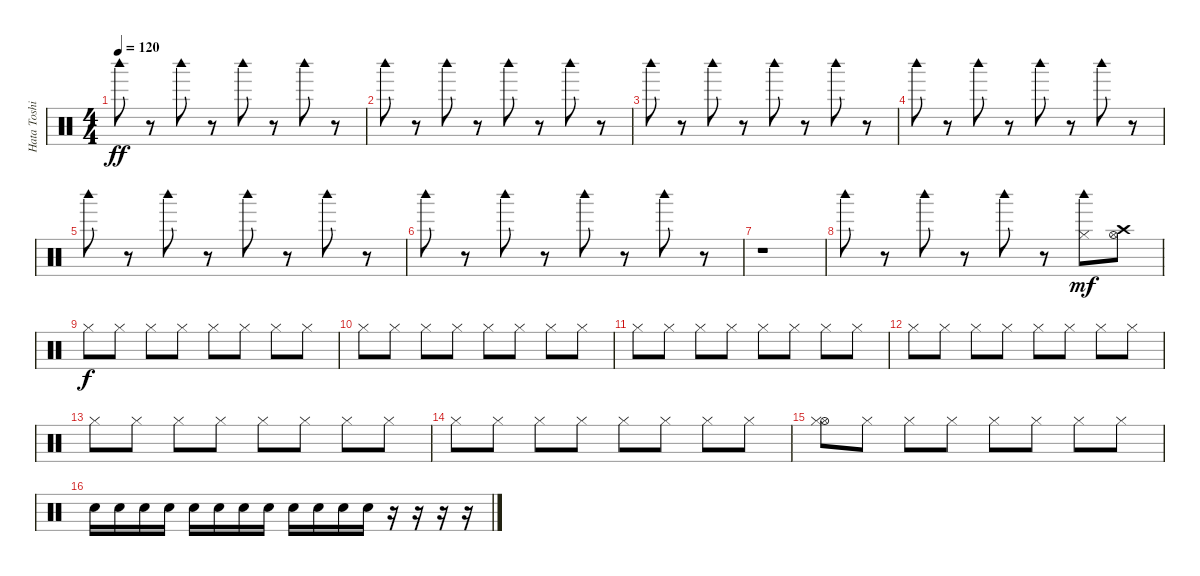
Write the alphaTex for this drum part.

\track ("Hata Toshiki" "Hata Toshi") {instrument percussion}
\staff {score}
\articulation defaults
\ts (4 4)
\tempo 120
\clef neutral
\ks c "Woodblock high (hit)".8{dy ff}
r.8 "Woodblock high (hit)".8 r.8 "Woodblock high (hit)".8 r.8 "Woodblock high (hit)".8 r.8 |
"Woodblock high (hit)".8 r.8 "Woodblock high (hit)".8 r.8 "Woodblock high (hit)".8 r.8 "Woodblock high (hit)".8 r.8 |
"Woodblock high (hit)".8 r.8 "Woodblock high (hit)".8 r.8 "Woodblock high (hit)".8 r.8 "Woodblock high (hit)".8 r.8 |
"Woodblock high (hit)".8 r.8 "Woodblock high (hit)".8 r.8 "Woodblock high (hit)".8 r.8 "Woodblock high (hit)".8 r.8 |
"Woodblock high (hit)".8 r.8 "Woodblock high (hit)".8 r.8 "Woodblock high (hit)".8 r.8 "Woodblock high (hit)".8 r.8 |
"Woodblock high (hit)".8 r.8 "Woodblock high (hit)".8 r.8 "Woodblock high (hit)".8 r.8 "Woodblock high (hit)".8 r.8 |
r.1 |
"Woodblock high (hit)".8 r.8 "Woodblock high (hit)".8 r.8 "Woodblock high (hit)".8 r.8 ("Woodblock high (hit)" "Hi-Hat (closed)").8{dy mf} ("Hi-Hat (open)" "Crash high (hit)").8 |
"Hi-Hat (closed)".8{dy f} "Hi-Hat (closed)".8 "Hi-Hat (closed)".8 "Hi-Hat (closed)".8 "Hi-Hat (closed)".8 "Hi-Hat (closed)".8 "Hi-Hat (closed)".8 "Hi-Hat (closed)".8 |
"Hi-Hat (closed)".8 "Hi-Hat (closed)".8 "Hi-Hat (closed)".8 "Hi-Hat (closed)".8 "Hi-Hat (closed)".8 "Hi-Hat (closed)".8 "Hi-Hat (closed)".8 "Hi-Hat (closed)".8 |
"Hi-Hat (closed)".8 "Hi-Hat (closed)".8 "Hi-Hat (closed)".8 "Hi-Hat (closed)".8 "Hi-Hat (closed)".8 "Hi-Hat (closed)".8 "Hi-Hat (closed)".8 "Hi-Hat (closed)".8 |
"Hi-Hat (closed)".8 "Hi-Hat (closed)".8 "Hi-Hat (closed)".8 "Hi-Hat (closed)".8 "Hi-Hat (closed)".8 "Hi-Hat (closed)".8 "Hi-Hat (closed)".8 "Hi-Hat (closed)".8 |
"Hi-Hat (closed)".8 "Hi-Hat (closed)".8 "Hi-Hat (closed)".8 "Hi-Hat (closed)".8 "Hi-Hat (closed)".8 "Hi-Hat (closed)".8 "Hi-Hat (closed)".8 "Hi-Hat (closed)".8 |
"Hi-Hat (closed)".8 "Hi-Hat (closed)".8 "Hi-Hat (closed)".8 "Hi-Hat (closed)".8 "Hi-Hat (closed)".8 "Hi-Hat (closed)".8 "Hi-Hat (closed)".8 "Hi-Hat (closed)".8 |
("Hi-Hat (open)" "Hi-Hat (closed)").8 "Hi-Hat (closed)".8 "Hi-Hat (closed)".8 "Hi-Hat (closed)".8 "Hi-Hat (closed)".8 "Hi-Hat (closed)".8 "Hi-Hat (closed)".8 "Hi-Hat (closed)".8 |
"Electric Snare (hit)".16 "Electric Snare (hit)".16 "Electric Snare (hit)".16 "Electric Snare (hit)".16 "Electric Snare (hit)".16 "Electric Snare (hit)".16 "Electric Snare (hit)".16 "Electric Snare (hit)".16 "Electric Snare (hit)".16 "Electric Snare (hit)".16 "Electric Snare (hit)".16 "Electric Snare (hit)".16 r.16 r.16 r.16 r.16
